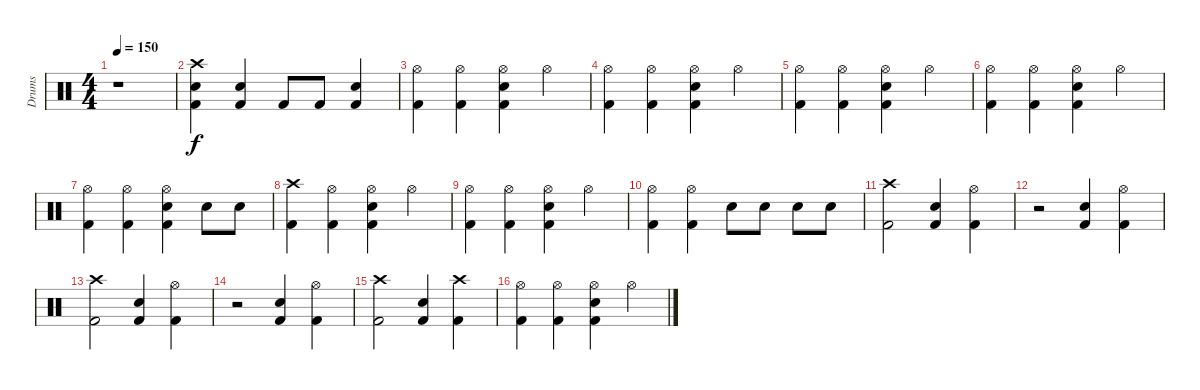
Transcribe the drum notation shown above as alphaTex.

\track ("Drums" "Drums") {instrument percussion}
\staff {score}
\articulation defaults
\ts (4 4)
\tempo 150
\clef neutral
\ks c
r.1{dy f} |
("Crash high (hit)" "Electric Snare (hit)" "Kick (hit) 2").4 ("Snare (hit) 2" "Kick (hit) 2").4 "Kick (hit) 2".8 "Kick (hit) 2".8 ("Electric Snare (hit)" "Kick (hit) 2").4 |
("Hi-Hat (open)" "Kick (hit) 2").4 ("Hi-Hat (open)" "Kick (hit) 2").4 ("Hi-Hat (open)" "Electric Snare (hit)" "Kick (hit) 2").4 "Hi-Hat (open)".4 |
("Hi-Hat (open)" "Kick (hit) 2").4 ("Hi-Hat (open)" "Kick (hit) 2").4 ("Hi-Hat (open)" "Electric Snare (hit)" "Kick (hit) 2").4 "Hi-Hat (open)".4 |
("Hi-Hat (open)" "Kick (hit) 2").4 ("Hi-Hat (open)" "Kick (hit) 2").4 ("Hi-Hat (open)" "Electric Snare (hit)" "Kick (hit) 2").4 "Hi-Hat (open)".4 |
("Hi-Hat (open)" "Kick (hit) 2").4 ("Hi-Hat (open)" "Kick (hit) 2").4 ("Hi-Hat (open)" "Electric Snare (hit)" "Kick (hit) 2").4 "Hi-Hat (open)".4 |
("Hi-Hat (open)" "Kick (hit) 2").4 ("Hi-Hat (open)" "Kick (hit) 2").4 ("Hi-Hat (open)" "Electric Snare (hit)" "Kick (hit) 2").4 "Electric Snare (hit)".8 "Electric Snare (hit)".8 |
("Crash high (hit)" "Kick (hit) 2").4 ("Hi-Hat (open)" "Kick (hit) 2").4 ("Hi-Hat (open)" "Electric Snare (hit)" "Kick (hit) 2").4 "Hi-Hat (open)".4 |
("Hi-Hat (open)" "Kick (hit) 2").4 ("Hi-Hat (open)" "Kick (hit) 2").4 ("Hi-Hat (open)" "Electric Snare (hit)" "Kick (hit) 2").4 "Hi-Hat (open)".4 |
("Hi-Hat (open)" "Kick (hit) 2").4 ("Hi-Hat (open)" "Kick (hit) 2").4 "Electric Snare (hit)".8 "Electric Snare (hit)".8 "Snare (hit) 2".8 "Snare (hit) 2".8 |
("Crash high (hit)" "Kick (hit) 2").2 ("Electric Snare (hit)" "Kick (hit) 2").4 ("Hi-Hat (open)" "Kick (hit) 2").4 |
r.2 ("Electric Snare (hit)" "Kick (hit) 2").4 ("Hi-Hat (open)" "Kick (hit) 2").4 |
("Crash high (hit)" "Kick (hit) 2").2 ("Electric Snare (hit)" "Kick (hit) 2").4 ("Hi-Hat (open)" "Kick (hit) 2").4 |
r.2 ("Electric Snare (hit)" "Kick (hit) 2").4 ("Hi-Hat (open)" "Kick (hit) 2").4 |
("Crash high (hit)" "Kick (hit) 2").2 ("Electric Snare (hit)" "Kick (hit) 2").4 ("Crash high (hit)" "Kick (hit) 2").4 |
("Hi-Hat (open)" "Kick (hit) 2").4 ("Hi-Hat (open)" "Kick (hit) 2").4 ("Hi-Hat (open)" "Electric Snare (hit)" "Kick (hit) 2").4 "Hi-Hat (open)".4
